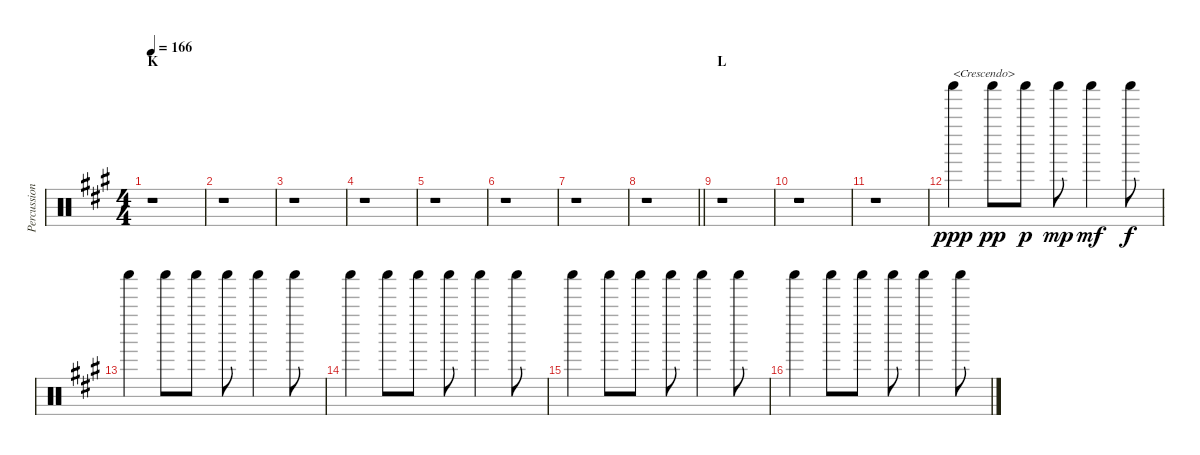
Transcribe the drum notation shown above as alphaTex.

\track ("Percussion III" "Percussion") {instrument percussion}
\staff {score}
\articulation defaults
\ts (4 4)
\section ("" "K")
\tempo 166
\clef neutral
\ks a
r.1{dy f} |
r.1 |
r.1 |
r.1 |
r.1 |
r.1 |
r.1 |
\barLineRight lightlight
r.1 |
\section ("" "L")
r.1 |
r.1 |
r.1 |
"Shaker (hit)".4{txt "<Crescendo>" dy ppp} "Shaker (hit)".8{dy pp} "Shaker (hit)".8{dy p} "Shaker (hit)".8{dy mp} "Shaker (hit)".4{dy mf} "Shaker (hit)".8{dy f} |
"Shaker (hit)".4 "Shaker (hit)".8 "Shaker (hit)".8 "Shaker (hit)".8 "Shaker (hit)".4 "Shaker (hit)".8 |
"Shaker (hit)".4 "Shaker (hit)".8 "Shaker (hit)".8 "Shaker (hit)".8 "Shaker (hit)".4 "Shaker (hit)".8 |
"Shaker (hit)".4 "Shaker (hit)".8 "Shaker (hit)".8 "Shaker (hit)".8 "Shaker (hit)".4 "Shaker (hit)".8 |
"Shaker (hit)".4 "Shaker (hit)".8 "Shaker (hit)".8 "Shaker (hit)".8 "Shaker (hit)".4 "Shaker (hit)".8
